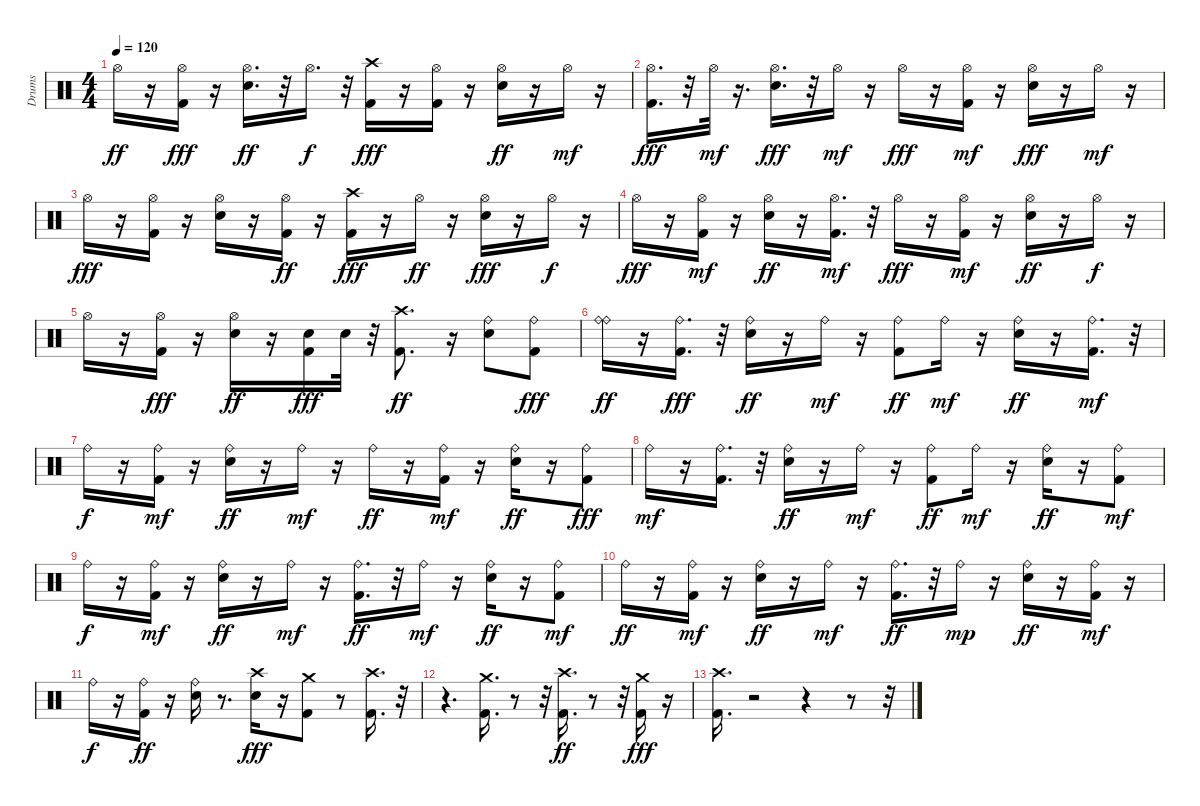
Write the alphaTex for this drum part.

\track ("Drums" "Drums") {instrument percussion}
\staff {score}
\articulation defaults
\ts (4 4)
\tempo 120
\clef neutral
\ks c "Hi-Hat (open)".16{dy ff}
r.16 ("Kick (hit) 2" "Hi-Hat (open)").16{dy fff} r.16 ("Electric Snare (hit)" "Hi-Hat (open)").16{d dy ff} r.32 "Hi-Hat (open)".16{d dy f} r.32 ("Kick (hit) 2" "Crash high (hit)").16{dy fff} r.16 ("Kick (hit) 2" "Hi-Hat (open)").16 r.16 ("Electric Snare (hit)" "Hi-Hat (open)").16{dy ff} r.16 "Hi-Hat (open)".16{dy mf} r.16 |
("Kick (hit) 2" "Hi-Hat (open)").16{d dy fff} r.32 "Hi-Hat (open)".32{dy mf} r.16{d} ("Electric Snare (hit)" "Hi-Hat (open)").16{d dy fff} r.32 "Hi-Hat (open)".16{dy mf} r.16 "Hi-Hat (open)".16{dy fff} r.16 ("Kick (hit) 2" "Hi-Hat (open)").16{dy mf} r.16 ("Electric Snare (hit)" "Hi-Hat (open)").16{dy fff} r.16 "Hi-Hat (open)".16{dy mf} r.16 |
"Hi-Hat (open)".16{dy fff} r.16 ("Kick (hit) 2" "Hi-Hat (open)").16 r.16 ("Electric Snare (hit)" "Hi-Hat (open)").16 r.16 ("Kick (hit) 2" "Hi-Hat (open)").16{dy ff} r.16 ("Kick (hit) 2" "Crash high (hit)").16{dy fff} r.16 "Hi-Hat (open)".16{dy ff} r.16 ("Electric Snare (hit)" "Hi-Hat (open)").16{dy fff} r.16 "Hi-Hat (open)".16{dy f} r.16 |
"Hi-Hat (open)".16{dy fff} r.16 ("Kick (hit) 2" "Hi-Hat (open)").16{dy mf} r.16 ("Electric Snare (hit)" "Hi-Hat (open)").16{dy ff} r.16 ("Kick (hit) 2" "Hi-Hat (open)").16{d dy mf} r.32 "Hi-Hat (open)".16{dy fff} r.16 ("Kick (hit) 2" "Hi-Hat (open)").16{dy mf} r.16 ("Electric Snare (hit)" "Hi-Hat (open)").16{dy ff} r.16 "Hi-Hat (open)".16{dy f} r.16 |
"Hi-Hat (open)".16 r.16 ("Kick (hit) 2" "Hi-Hat (open)").16{dy fff} r.16 ("Electric Snare (hit)" "Hi-Hat (open)").16{dy ff} r.16 ("Kick (hit) 2" "Electric Snare (hit)").16{dy fff} "Electric Snare (hit)".32 r.32 ("Kick (hit) 2" "Crash high (hit)").8{d dy ff} r.16 ("Electric Snare (hit)" "Ride (bell)").8 ("Kick (hit) 2" "Ride (bell)").8{dy fff} |
("Ride (bell)" "Ride (bell)").16{dy ff} r.16 ("Kick (hit) 2" "Ride (bell)").16{d dy fff} r.32 ("Electric Snare (hit)" "Ride (bell)").16{dy ff} r.16 "Ride (bell)".16{dy mf} r.16 ("Kick (hit) 2" "Ride (bell)").8{dy ff} "Ride (bell)".16{dy mf} r.16 ("Electric Snare (hit)" "Ride (bell)").16{dy ff} r.16 ("Kick (hit) 2" "Ride (bell)").16{d dy mf} r.32 |
"Ride (bell)".16{dy f} r.16 ("Kick (hit) 2" "Ride (bell)").16{dy mf} r.16 ("Electric Snare (hit)" "Ride (bell)").16{dy ff} r.16 "Ride (bell)".16{dy mf} r.16 "Ride (bell)".16{dy ff} r.16 ("Kick (hit) 2" "Ride (bell)").16{dy mf} r.16 ("Electric Snare (hit)" "Ride (bell)").16{dy ff} r.16 ("Kick (hit) 2" "Ride (bell)").8{dy fff} |
"Ride (bell)".16{dy mf} r.16 ("Kick (hit) 2" "Ride (bell)").16{d} r.32 ("Electric Snare (hit)" "Ride (bell)").16{dy ff} r.16 "Ride (bell)".16{dy mf} r.16 ("Kick (hit) 2" "Ride (bell)").8{dy ff} "Ride (bell)".16{dy mf} r.16 ("Electric Snare (hit)" "Ride (bell)").16{dy ff} r.16 ("Kick (hit) 2" "Ride (bell)").8{dy mf} |
"Ride (bell)".16{dy f} r.16 ("Kick (hit) 2" "Ride (bell)").16{dy mf} r.16 ("Electric Snare (hit)" "Ride (bell)").16{dy ff} r.16 "Ride (bell)".16{dy mf} r.16 ("Kick (hit) 2" "Ride (bell)").16{d dy ff} r.32 "Ride (bell)".16{dy mf} r.16 ("Electric Snare (hit)" "Ride (bell)").16{dy ff} r.16 ("Kick (hit) 2" "Ride (bell)").8{dy mf} |
"Ride (bell)".16{dy ff} r.16 ("Kick (hit) 2" "Ride (bell)").16{dy mf} r.16 ("Electric Snare (hit)" "Ride (bell)").16{dy ff} r.16 "Ride (bell)".16{dy mf} r.16 ("Kick (hit) 2" "Ride (bell)").16{d dy ff} r.32 "Ride (bell)".16{dy mp} r.16 ("Electric Snare (hit)" "Ride (bell)").16{dy ff} r.16 ("Kick (hit) 2" "Ride (bell)").16{dy mf} r.16 |
"Ride (bell)".16{dy f} r.16 ("Kick (hit) 2" "Ride (bell)").16{dy ff} r.16 ("Electric Snare (hit)" "Ride (bell)").16 r.8{d} ("Electric Snare (hit)" "Crash high (hit)").16{dy fff} r.16 ("Crash medium (hit)" "Kick (hit) 2").8 r.8 ("Crash high (hit)" "Kick (hit) 2").16{d} r.32 |
r.4{d} ("Kick (hit) 2" "Crash medium (hit)").16{d} r.8 r.32 ("Kick (hit) 2" "Crash high (hit)").16{d dy ff} r.8 r.32 ("Kick (hit) 2" "Crash medium (hit)").16{dy fff} r.16 |
("Kick (hit) 2" "Crash high (hit)").16{d} r.2 r.4 r.8 r.32
